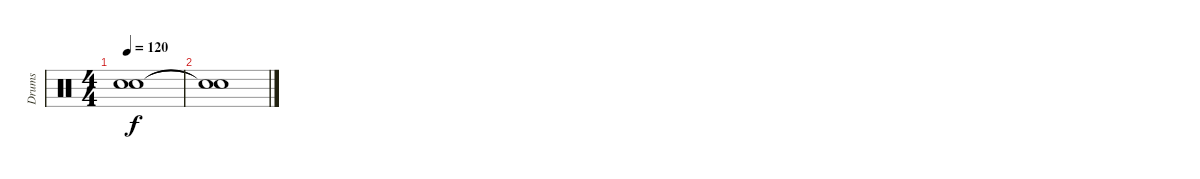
\track ("Drums" "Drums") {instrument percussion}
\staff {score}
\articulation defaults
\ts (4 4)
\tempo 120
\clef neutral
\ks c
("Snare (hit)"{t} "Snare (hit)"{t}).1{dy f} |
("Snare (hit)"{t} "Snare (hit)"{t}).1
